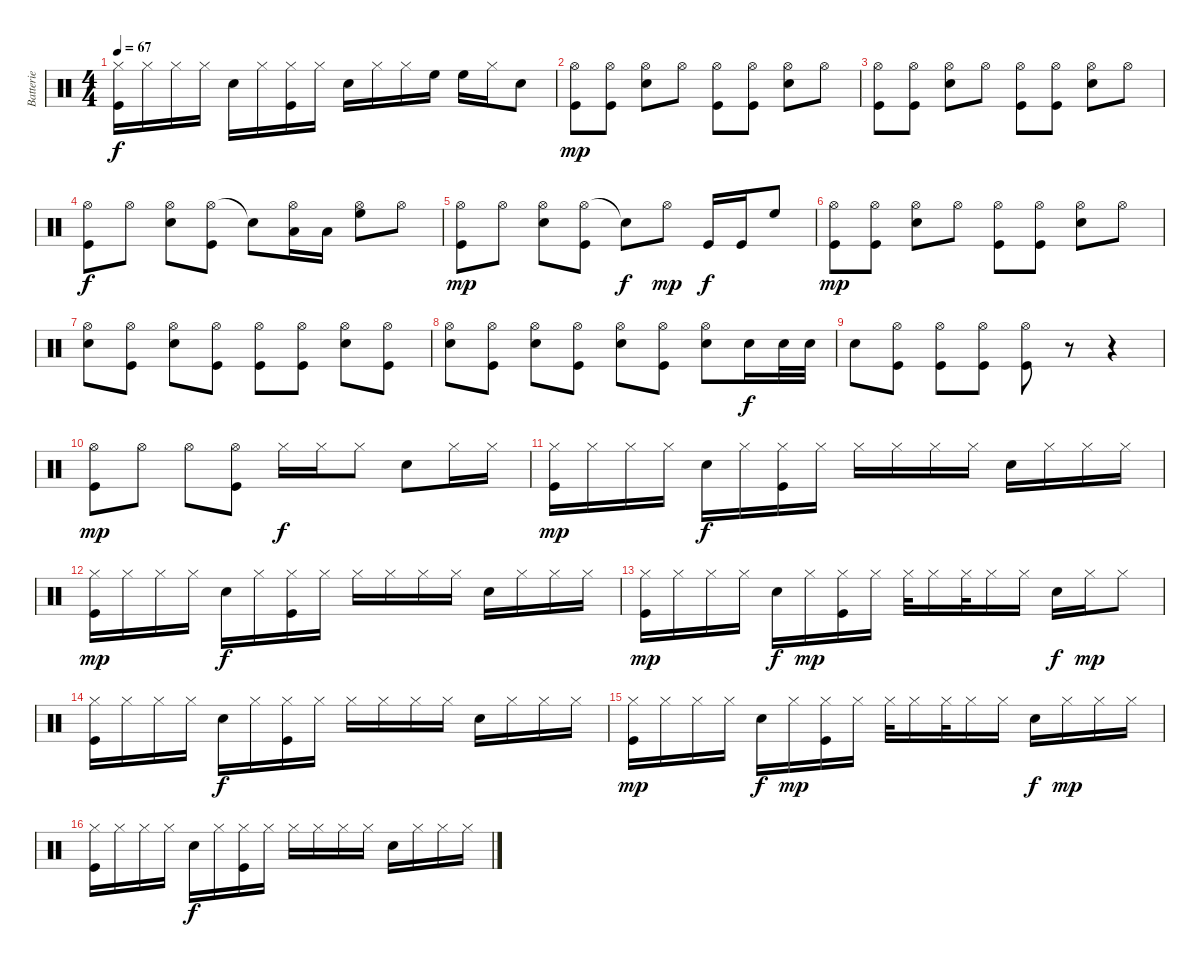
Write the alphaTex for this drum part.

\track ("Batterie" "Batterie") {instrument percussion}
\staff {score}
\articulation defaults
\ts (4 4)
\tempo 67
\clef neutral
\ks c
("Hi-Hat (closed)" "Kick (hit)").16{dy f} "Hi-Hat (closed)".16 "Hi-Hat (closed)".16 "Hi-Hat (closed)".16 "Snare (hit) 2".16 "Hi-Hat (closed)".16 ("Hi-Hat (closed)" "Kick (hit)").16 "Hi-Hat (closed)".16 "Snare (hit) 2".16 "Hi-Hat (closed)".16 "Hi-Hat (closed)".16 "High Floor Tom (hit)".16 "High Floor Tom (hit)".16 "Hi-Hat (closed)".16 "Snare (hit) 2".8 |
("Hi-Hat (open)" "Kick (hit)").8{dy mp} ("Hi-Hat (open)" "Kick (hit)").8 ("Hi-Hat (open)" "Snare (hit) 2").8 "Hi-Hat (open)".8 ("Hi-Hat (open)" "Kick (hit)").8 ("Hi-Hat (open)" "Kick (hit)").8 ("Hi-Hat (open)" "Snare (hit) 2").8 "Hi-Hat (open)".8 |
("Hi-Hat (open)" "Kick (hit)").8 ("Hi-Hat (open)" "Kick (hit)").8 ("Hi-Hat (open)" "Snare (hit) 2").8 "Hi-Hat (open)".8 ("Hi-Hat (open)" "Kick (hit)").8 ("Hi-Hat (open)" "Kick (hit)").8 ("Hi-Hat (open)" "Snare (hit) 2").8 "Hi-Hat (open)".8 |
("Hi-Hat (open)" "Kick (hit)").8{dy f} "Hi-Hat (open)".8 ("Hi-Hat (open)" "Snare (hit) 2").8 ("Hi-Hat (open)" "Kick (hit)").8 "Snare (hit)"{t}.8 ("Hi-Hat (open)" "Low Tom (hit)").16 "Low Tom (hit)".16 ("Hi-Hat (open)" "High Floor Tom (hit)").8 "Hi-Hat (open)".8 |
("Hi-Hat (open)" "Kick (hit)").8{dy mp} "Hi-Hat (open)".8 ("Hi-Hat (open)" "Snare (hit) 2").8 ("Hi-Hat (open)" "Kick (hit)").8 "Snare (hit)"{t}.8{dy f} "Hi-Hat (open)".8{dy mp} "Kick (hit)".16{dy f} "Kick (hit)".16 "High Floor Tom (hit)".8 |
("Hi-Hat (open)" "Kick (hit)").8{dy mp} ("Hi-Hat (open)" "Kick (hit)").8 ("Hi-Hat (open)" "Snare (hit) 2").8 "Hi-Hat (open)".8 ("Hi-Hat (open)" "Kick (hit)").8 ("Hi-Hat (open)" "Kick (hit)").8 ("Hi-Hat (open)" "Snare (hit) 2").8 "Hi-Hat (open)".8 |
("Hi-Hat (open)" "Snare (hit) 2").8 ("Hi-Hat (open)" "Kick (hit)").8 ("Hi-Hat (open)" "Snare (hit) 2").8 ("Hi-Hat (open)" "Kick (hit)").8 ("Hi-Hat (open)" "Kick (hit)").8 ("Hi-Hat (open)" "Kick (hit)").8 ("Hi-Hat (open)" "Snare (hit) 2").8 ("Hi-Hat (open)" "Kick (hit)").8 |
("Hi-Hat (open)" "Snare (hit) 2").8 ("Hi-Hat (open)" "Kick (hit)").8 ("Hi-Hat (open)" "Snare (hit) 2").8 ("Hi-Hat (open)" "Kick (hit)").8 ("Hi-Hat (open)" "Snare (hit) 2").8 ("Hi-Hat (open)" "Kick (hit)").8 ("Hi-Hat (open)" "Snare (hit) 2").8 "Snare (hit) 2".16{dy f} "Snare (hit) 2".32 "Snare (hit) 2".32 |
"Snare (hit) 2".8 ("Hi-Hat (open)" "Kick (hit)").8 ("Hi-Hat (open)" "Kick (hit)").8 ("Hi-Hat (open)" "Kick (hit)").8 ("Hi-Hat (open)" "Kick (hit)").8 r.8 r.4 |
("Hi-Hat (open)" "Kick (hit)").8{dy mp} "Hi-Hat (open)".8 "Hi-Hat (open)".8 ("Hi-Hat (open)" "Kick (hit)").8 "Hi-Hat (closed)".16{dy f} "Hi-Hat (closed)".16 "Hi-Hat (closed)".8 "Snare (hit) 2".8 "Hi-Hat (closed)".16 "Hi-Hat (closed)".16 |
("Hi-Hat (closed)" "Kick (hit)").16{dy mp} "Hi-Hat (closed)".16 "Hi-Hat (closed)".16 "Hi-Hat (closed)".16 "Snare (hit) 2".16{dy f} "Hi-Hat (closed)".16 ("Hi-Hat (closed)" "Kick (hit)").16 "Hi-Hat (closed)".16 "Hi-Hat (closed)".16 "Hi-Hat (closed)".16 "Hi-Hat (closed)".16 "Hi-Hat (closed)".16 "Snare (hit) 2".16 "Hi-Hat (closed)".16 "Hi-Hat (closed)".16 "Hi-Hat (closed)".16 |
("Hi-Hat (closed)" "Kick (hit)").16{dy mp} "Hi-Hat (closed)".16 "Hi-Hat (closed)".16 "Hi-Hat (closed)".16 "Snare (hit) 2".16{dy f} "Hi-Hat (closed)".16 ("Hi-Hat (closed)" "Kick (hit)").16 "Hi-Hat (closed)".16 "Hi-Hat (closed)".16 "Hi-Hat (closed)".16 "Hi-Hat (closed)".16 "Hi-Hat (closed)".16 "Snare (hit) 2".16 "Hi-Hat (closed)".16 "Hi-Hat (closed)".16 "Hi-Hat (closed)".16 |
("Hi-Hat (closed)" "Kick (hit)").16{dy mp} "Hi-Hat (closed)".16 "Hi-Hat (closed)".16 "Hi-Hat (closed)".16 "Snare (hit) 2".16{dy f} "Hi-Hat (closed)".16{dy mp} ("Hi-Hat (closed)" "Kick (hit)").16 "Hi-Hat (closed)".16 "Hi-Hat (closed)".32 "Hi-Hat (closed)".16 "Hi-Hat (closed)".32 "Hi-Hat (closed)".16 "Hi-Hat (closed)".16 "Snare (hit) 2".16{dy f} "Hi-Hat (closed)".16{dy mp} "Hi-Hat (closed)".8 |
("Hi-Hat (closed)" "Kick (hit)").16 "Hi-Hat (closed)".16 "Hi-Hat (closed)".16 "Hi-Hat (closed)".16 "Snare (hit) 2".16{dy f} "Hi-Hat (closed)".16 ("Hi-Hat (closed)" "Kick (hit)").16 "Hi-Hat (closed)".16 "Hi-Hat (closed)".16 "Hi-Hat (closed)".16 "Hi-Hat (closed)".16 "Hi-Hat (closed)".16 "Snare (hit) 2".16 "Hi-Hat (closed)".16 "Hi-Hat (closed)".16 "Hi-Hat (closed)".16 |
("Hi-Hat (closed)" "Kick (hit)").16{dy mp} "Hi-Hat (closed)".16 "Hi-Hat (closed)".16 "Hi-Hat (closed)".16 "Snare (hit) 2".16{dy f} "Hi-Hat (closed)".16{dy mp} ("Hi-Hat (closed)" "Kick (hit)").16 "Hi-Hat (closed)".16 "Hi-Hat (closed)".32 "Hi-Hat (closed)".16 "Hi-Hat (closed)".32 "Hi-Hat (closed)".16 "Hi-Hat (closed)".16 "Snare (hit) 2".16{dy f} "Hi-Hat (closed)".16{dy mp} "Hi-Hat (closed)".16 "Hi-Hat (closed)".16 |
("Hi-Hat (closed)" "Kick (hit)").16 "Hi-Hat (closed)".16 "Hi-Hat (closed)".16 "Hi-Hat (closed)".16 "Snare (hit) 2".16{dy f} "Hi-Hat (closed)".16 ("Hi-Hat (closed)" "Kick (hit)").16 "Hi-Hat (closed)".16 "Hi-Hat (closed)".16 "Hi-Hat (closed)".16 "Hi-Hat (closed)".16 "Hi-Hat (closed)".16 "Snare (hit) 2".16 "Hi-Hat (closed)".16 "Hi-Hat (closed)".16 "Hi-Hat (closed)".16
